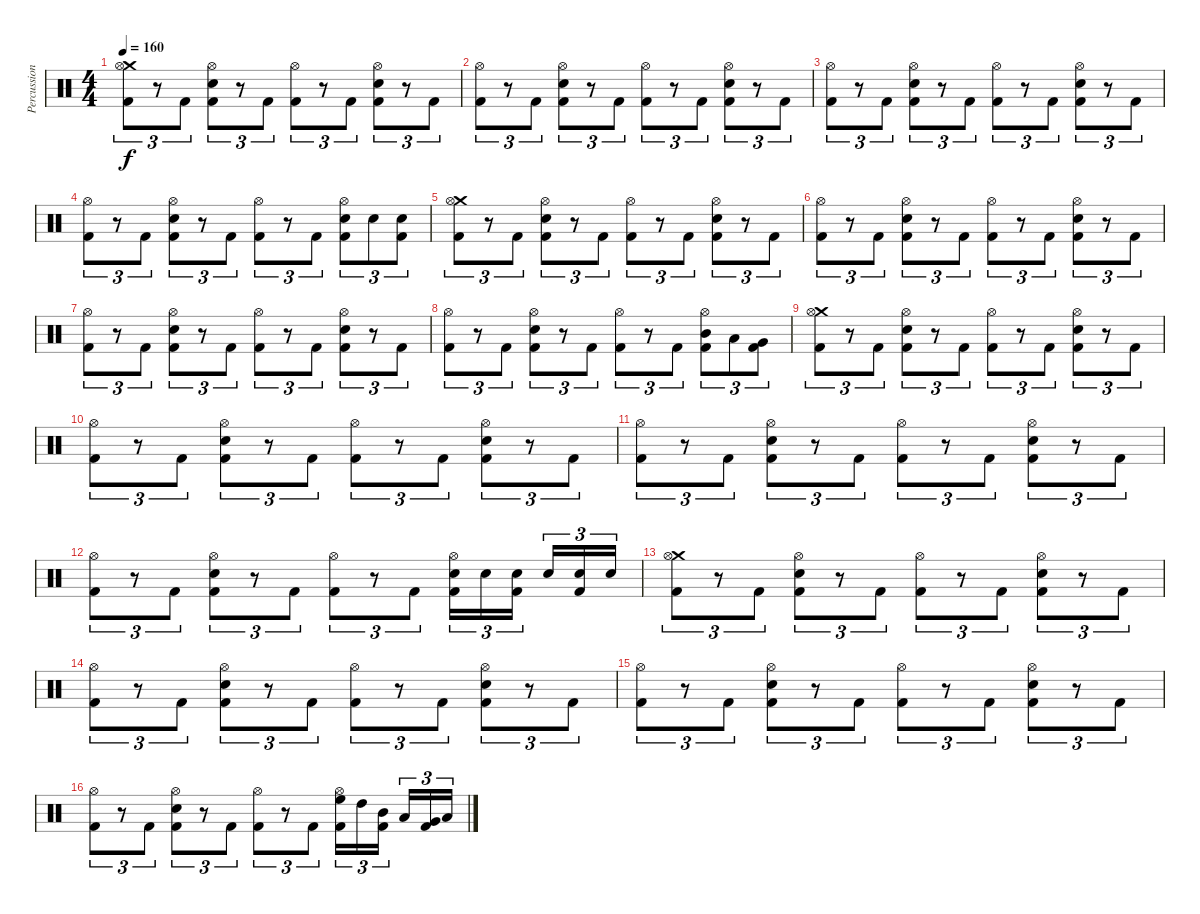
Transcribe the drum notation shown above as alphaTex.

\track ("Percussion" "Percussion") {instrument percussion}
\staff {score}
\articulation defaults
\ts (4 4)
\tempo 160
\clef neutral
\ks c
("Crash medium (hit)" "Hi-Hat (open)" "Kick (hit) 2").8{tu (3 2) dy f} r.8{tu (3 2)} "Kick (hit) 2".8{tu (3 2)} ("Hi-Hat (open)" "Electric Snare (hit)" "Kick (hit) 2").8{tu (3 2)} r.8{tu (3 2)} "Kick (hit) 2".8{tu (3 2)} ("Hi-Hat (open)" "Kick (hit) 2").8{tu (3 2)} r.8{tu (3 2)} "Kick (hit) 2".8{tu (3 2)} ("Hi-Hat (open)" "Electric Snare (hit)" "Kick (hit) 2").8{tu (3 2)} r.8{tu (3 2)} "Kick (hit) 2".8{tu (3 2)} |
("Hi-Hat (open)" "Kick (hit) 2").8{tu (3 2)} r.8{tu (3 2)} "Kick (hit) 2".8{tu (3 2)} ("Hi-Hat (open)" "Electric Snare (hit)" "Kick (hit) 2").8{tu (3 2)} r.8{tu (3 2)} "Kick (hit) 2".8{tu (3 2)} ("Hi-Hat (open)" "Kick (hit) 2").8{tu (3 2)} r.8{tu (3 2)} "Kick (hit) 2".8{tu (3 2)} ("Hi-Hat (open)" "Electric Snare (hit)" "Kick (hit) 2").8{tu (3 2)} r.8{tu (3 2)} "Kick (hit) 2".8{tu (3 2)} |
("Hi-Hat (open)" "Kick (hit) 2").8{tu (3 2)} r.8{tu (3 2)} "Kick (hit) 2".8{tu (3 2)} ("Hi-Hat (open)" "Electric Snare (hit)" "Kick (hit) 2").8{tu (3 2)} r.8{tu (3 2)} "Kick (hit) 2".8{tu (3 2)} ("Hi-Hat (open)" "Kick (hit) 2").8{tu (3 2)} r.8{tu (3 2)} "Kick (hit) 2".8{tu (3 2)} ("Hi-Hat (open)" "Electric Snare (hit)" "Kick (hit) 2").8{tu (3 2)} r.8{tu (3 2)} "Kick (hit) 2".8{tu (3 2)} |
("Hi-Hat (open)" "Kick (hit) 2").8{tu (3 2)} r.8{tu (3 2)} "Kick (hit) 2".8{tu (3 2)} ("Hi-Hat (open)" "Electric Snare (hit)" "Kick (hit) 2").8{tu (3 2)} r.8{tu (3 2)} "Kick (hit) 2".8{tu (3 2)} ("Hi-Hat (open)" "Kick (hit) 2").8{tu (3 2)} r.8{tu (3 2)} "Kick (hit) 2".8{tu (3 2)} ("Hi-Hat (open)" "Electric Snare (hit)" "Kick (hit) 2").8{tu (3 2)} "Electric Snare (hit)".8{tu (3 2)} ("Electric Snare (hit)" "Kick (hit) 2").8{tu (3 2)} |
("Crash medium (hit)" "Hi-Hat (open)" "Kick (hit) 2").8{tu (3 2)} r.8{tu (3 2)} "Kick (hit) 2".8{tu (3 2)} ("Hi-Hat (open)" "Electric Snare (hit)" "Kick (hit) 2").8{tu (3 2)} r.8{tu (3 2)} "Kick (hit) 2".8{tu (3 2)} ("Hi-Hat (open)" "Kick (hit) 2").8{tu (3 2)} r.8{tu (3 2)} "Kick (hit) 2".8{tu (3 2)} ("Hi-Hat (open)" "Electric Snare (hit)" "Kick (hit) 2").8{tu (3 2)} r.8{tu (3 2)} "Kick (hit) 2".8{tu (3 2)} |
("Hi-Hat (open)" "Kick (hit) 2").8{tu (3 2)} r.8{tu (3 2)} "Kick (hit) 2".8{tu (3 2)} ("Hi-Hat (open)" "Electric Snare (hit)" "Kick (hit) 2").8{tu (3 2)} r.8{tu (3 2)} "Kick (hit) 2".8{tu (3 2)} ("Hi-Hat (open)" "Kick (hit) 2").8{tu (3 2)} r.8{tu (3 2)} "Kick (hit) 2".8{tu (3 2)} ("Hi-Hat (open)" "Electric Snare (hit)" "Kick (hit) 2").8{tu (3 2)} r.8{tu (3 2)} "Kick (hit) 2".8{tu (3 2)} |
("Hi-Hat (open)" "Kick (hit) 2").8{tu (3 2)} r.8{tu (3 2)} "Kick (hit) 2".8{tu (3 2)} ("Hi-Hat (open)" "Electric Snare (hit)" "Kick (hit) 2").8{tu (3 2)} r.8{tu (3 2)} "Kick (hit) 2".8{tu (3 2)} ("Hi-Hat (open)" "Kick (hit) 2").8{tu (3 2)} r.8{tu (3 2)} "Kick (hit) 2".8{tu (3 2)} ("Hi-Hat (open)" "Electric Snare (hit)" "Kick (hit) 2").8{tu (3 2)} r.8{tu (3 2)} "Kick (hit) 2".8{tu (3 2)} |
("Hi-Hat (open)" "Kick (hit) 2").8{tu (3 2)} r.8{tu (3 2)} "Kick (hit) 2".8{tu (3 2)} ("Hi-Hat (open)" "Electric Snare (hit)" "Kick (hit) 2").8{tu (3 2)} r.8{tu (3 2)} "Kick (hit) 2".8{tu (3 2)} ("Hi-Hat (open)" "Kick (hit) 2").8{tu (3 2)} r.8{tu (3 2)} "Kick (hit) 2".8{tu (3 2)} ("Hi-Hat (open)" "Mid Tom (hit)" "Kick (hit) 2").8{tu (3 2)} "Low Tom (hit)".8{tu (3 2)} ("Very Low Tom (hit)" "Kick (hit) 2").8{tu (3 2)} |
("Crash medium (hit)" "Hi-Hat (open)" "Kick (hit) 2").8{tu (3 2)} r.8{tu (3 2)} "Kick (hit) 2".8{tu (3 2)} ("Hi-Hat (open)" "Electric Snare (hit)" "Kick (hit) 2").8{tu (3 2)} r.8{tu (3 2)} "Kick (hit) 2".8{tu (3 2)} ("Hi-Hat (open)" "Kick (hit) 2").8{tu (3 2)} r.8{tu (3 2)} "Kick (hit) 2".8{tu (3 2)} ("Hi-Hat (open)" "Electric Snare (hit)" "Kick (hit) 2").8{tu (3 2)} r.8{tu (3 2)} "Kick (hit) 2".8{tu (3 2)} |
("Hi-Hat (open)" "Kick (hit) 2").8{tu (3 2)} r.8{tu (3 2)} "Kick (hit) 2".8{tu (3 2)} ("Hi-Hat (open)" "Electric Snare (hit)" "Kick (hit) 2").8{tu (3 2)} r.8{tu (3 2)} "Kick (hit) 2".8{tu (3 2)} ("Hi-Hat (open)" "Kick (hit) 2").8{tu (3 2)} r.8{tu (3 2)} "Kick (hit) 2".8{tu (3 2)} ("Hi-Hat (open)" "Electric Snare (hit)" "Kick (hit) 2").8{tu (3 2)} r.8{tu (3 2)} "Kick (hit) 2".8{tu (3 2)} |
("Hi-Hat (open)" "Kick (hit) 2").8{tu (3 2)} r.8{tu (3 2)} "Kick (hit) 2".8{tu (3 2)} ("Hi-Hat (open)" "Electric Snare (hit)" "Kick (hit) 2").8{tu (3 2)} r.8{tu (3 2)} "Kick (hit) 2".8{tu (3 2)} ("Hi-Hat (open)" "Kick (hit) 2").8{tu (3 2)} r.8{tu (3 2)} "Kick (hit) 2".8{tu (3 2)} ("Hi-Hat (open)" "Electric Snare (hit)" "Kick (hit) 2").8{tu (3 2)} r.8{tu (3 2)} "Kick (hit) 2".8{tu (3 2)} |
("Hi-Hat (open)" "Kick (hit) 2").8{tu (3 2)} r.8{tu (3 2)} "Kick (hit) 2".8{tu (3 2)} ("Hi-Hat (open)" "Electric Snare (hit)" "Kick (hit) 2").8{tu (3 2)} r.8{tu (3 2)} "Kick (hit) 2".8{tu (3 2)} ("Hi-Hat (open)" "Kick (hit) 2").8{tu (3 2)} r.8{tu (3 2)} "Kick (hit) 2".8{tu (3 2)} ("Hi-Hat (open)" "Electric Snare (hit)" "Kick (hit) 2").16{tu (3 2)} "Electric Snare (hit)".16{tu (3 2)} ("Electric Snare (hit)" "Kick (hit) 2").16{tu (3 2)} "Electric Snare (hit)".16{tu (3 2)} ("Electric Snare (hit)" "Kick (hit) 2").16{tu (3 2)} "Electric Snare (hit)".16{tu (3 2)} |
("Crash medium (hit)" "Hi-Hat (open)" "Kick (hit) 2").8{tu (3 2)} r.8{tu (3 2)} "Kick (hit) 2".8{tu (3 2)} ("Hi-Hat (open)" "Electric Snare (hit)" "Kick (hit) 2").8{tu (3 2)} r.8{tu (3 2)} "Kick (hit) 2".8{tu (3 2)} ("Hi-Hat (open)" "Kick (hit) 2").8{tu (3 2)} r.8{tu (3 2)} "Kick (hit) 2".8{tu (3 2)} ("Hi-Hat (open)" "Electric Snare (hit)" "Kick (hit) 2").8{tu (3 2)} r.8{tu (3 2)} "Kick (hit) 2".8{tu (3 2)} |
("Hi-Hat (open)" "Kick (hit) 2").8{tu (3 2)} r.8{tu (3 2)} "Kick (hit) 2".8{tu (3 2)} ("Hi-Hat (open)" "Electric Snare (hit)" "Kick (hit) 2").8{tu (3 2)} r.8{tu (3 2)} "Kick (hit) 2".8{tu (3 2)} ("Hi-Hat (open)" "Kick (hit) 2").8{tu (3 2)} r.8{tu (3 2)} "Kick (hit) 2".8{tu (3 2)} ("Hi-Hat (open)" "Electric Snare (hit)" "Kick (hit) 2").8{tu (3 2)} r.8{tu (3 2)} "Kick (hit) 2".8{tu (3 2)} |
("Hi-Hat (open)" "Kick (hit) 2").8{tu (3 2)} r.8{tu (3 2)} "Kick (hit) 2".8{tu (3 2)} ("Hi-Hat (open)" "Electric Snare (hit)" "Kick (hit) 2").8{tu (3 2)} r.8{tu (3 2)} "Kick (hit) 2".8{tu (3 2)} ("Hi-Hat (open)" "Kick (hit) 2").8{tu (3 2)} r.8{tu (3 2)} "Kick (hit) 2".8{tu (3 2)} ("Hi-Hat (open)" "Electric Snare (hit)" "Kick (hit) 2").8{tu (3 2)} r.8{tu (3 2)} "Kick (hit) 2".8{tu (3 2)} |
("Hi-Hat (open)" "Kick (hit) 2").8{tu (3 2)} r.8{tu (3 2)} "Kick (hit) 2".8{tu (3 2)} ("Hi-Hat (open)" "Electric Snare (hit)" "Kick (hit) 2").8{tu (3 2)} r.8{tu (3 2)} "Kick (hit) 2".8{tu (3 2)} ("Hi-Hat (open)" "Kick (hit) 2").8{tu (3 2)} r.8{tu (3 2)} "Kick (hit) 2".8{tu (3 2)} ("Hi-Hat (open)" "High Floor Tom (hit)" "Kick (hit) 2").16{tu (3 2)} "High Tom (hit)".16{tu (3 2)} ("Mid Tom (hit)" "Kick (hit) 2").16{tu (3 2)} "Low Tom (hit)".16{tu (3 2)} ("Very Low Tom (hit)" "Kick (hit) 2").16{tu (3 2)} "Low Floor Tom (hit)".16{tu (3 2)}
